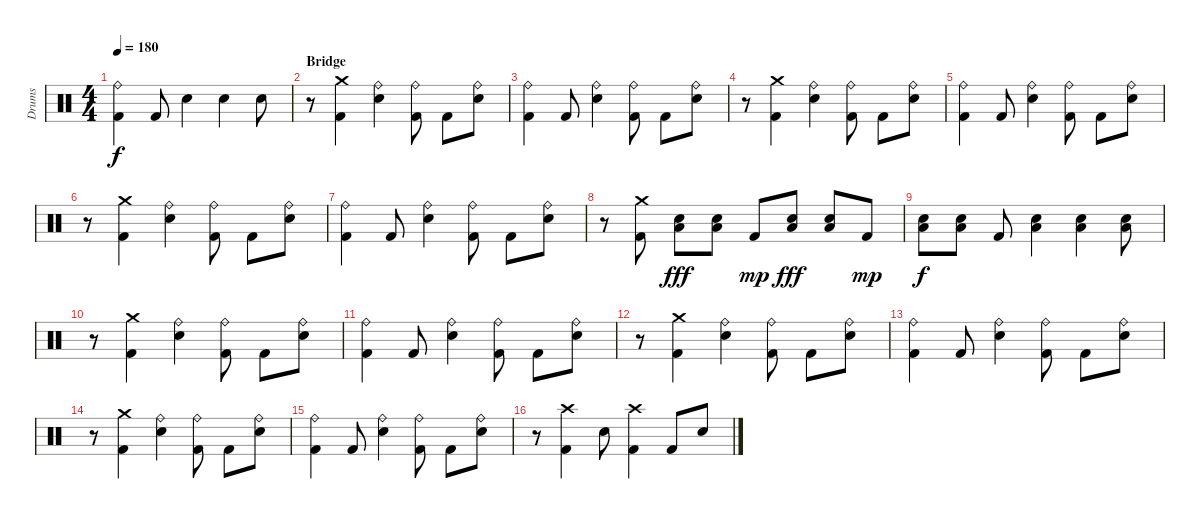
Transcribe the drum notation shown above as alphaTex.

\track ("Drums" "Drums") {instrument percussion}
\staff {score}
\articulation defaults
\ts (4 4)
\tempo 180
\clef neutral
\ks c
("Ride (bell)" "Kick (hit) 2").4{dy f} "Kick (hit) 2".8 "Snare (hit) 2".4 "Snare (hit) 2".4 "Snare (hit) 2".8 |
\section ("" "Bridge")
r.8 ("Crash medium (hit)" "Kick (hit) 2").4 ("Ride (bell)" "Snare (hit) 2").4 ("Ride (bell)" "Kick (hit) 2").8 "Kick (hit) 2".8 ("Ride (bell)" "Snare (hit) 2").8 |
("Ride (bell)" "Kick (hit) 2").4 "Kick (hit) 2".8 ("Ride (bell)" "Snare (hit) 2").4 ("Ride (bell)" "Kick (hit) 2").8 "Kick (hit) 2".8 ("Ride (bell)" "Snare (hit) 2").8 |
r.8 ("Crash medium (hit)" "Kick (hit) 2").4 ("Ride (bell)" "Snare (hit) 2").4 ("Ride (bell)" "Kick (hit) 2").8 "Kick (hit) 2".8 ("Ride (bell)" "Snare (hit) 2").8 |
("Ride (bell)" "Kick (hit) 2").4 "Kick (hit) 2".8 ("Ride (bell)" "Snare (hit) 2").4 ("Ride (bell)" "Kick (hit) 2").8 "Kick (hit) 2".8 ("Ride (bell)" "Snare (hit) 2").8 |
r.8 ("Crash medium (hit)" "Kick (hit) 2").4 ("Ride (bell)" "Snare (hit) 2").4 ("Ride (bell)" "Kick (hit) 2").8 "Kick (hit) 2".8 ("Ride (bell)" "Snare (hit) 2").8 |
("Ride (bell)" "Kick (hit) 2").4 "Kick (hit) 2".8 ("Ride (bell)" "Snare (hit) 2").4 ("Ride (bell)" "Kick (hit) 2").8 "Kick (hit) 2".8 ("Ride (bell)" "Snare (hit) 2").8 |
r.8 ("Crash medium (hit)" "Kick (hit) 2").8 ("Snare (hit) 2" "Low Floor Tom (hit)").8{dy fff} ("Snare (hit) 2" "Low Floor Tom (hit)").8 "Kick (hit) 2".8{dy mp} ("Snare (hit) 2" "Low Floor Tom (hit)").8{dy fff} ("Snare (hit) 2" "Low Floor Tom (hit)").8 "Kick (hit) 2".8{dy mp} |
("Snare (hit) 2" "Low Floor Tom (hit)").8{dy f} ("Snare (hit) 2" "Low Floor Tom (hit)").8 "Kick (hit) 2".8 ("Snare (hit) 2" "Low Floor Tom (hit)").4 ("Snare (hit) 2" "Low Floor Tom (hit)").4 ("Snare (hit) 2" "Low Floor Tom (hit)").8 |
r.8 ("Crash medium (hit)" "Kick (hit) 2").4 ("Ride (bell)" "Snare (hit) 2").4 ("Ride (bell)" "Kick (hit) 2").8 "Kick (hit) 2".8 ("Ride (bell)" "Snare (hit) 2").8 |
("Ride (bell)" "Kick (hit) 2").4 "Kick (hit) 2".8 ("Ride (bell)" "Snare (hit) 2").4 ("Ride (bell)" "Kick (hit) 2").8 "Kick (hit) 2".8 ("Ride (bell)" "Snare (hit) 2").8 |
r.8 ("Crash medium (hit)" "Kick (hit) 2").4 ("Ride (bell)" "Snare (hit) 2").4 ("Ride (bell)" "Kick (hit) 2").8 "Kick (hit) 2".8 ("Ride (bell)" "Snare (hit) 2").8 |
("Ride (bell)" "Kick (hit) 2").4 "Kick (hit) 2".8 ("Ride (bell)" "Snare (hit) 2").4 ("Ride (bell)" "Kick (hit) 2").8 "Kick (hit) 2".8 ("Ride (bell)" "Snare (hit) 2").8 |
r.8 ("Crash medium (hit)" "Kick (hit) 2").4 ("Ride (bell)" "Snare (hit) 2").4 ("Ride (bell)" "Kick (hit) 2").8 "Kick (hit) 2".8 ("Ride (bell)" "Snare (hit) 2").8 |
("Ride (bell)" "Kick (hit) 2").4 "Kick (hit) 2".8 ("Ride (bell)" "Snare (hit) 2").4 ("Ride (bell)" "Kick (hit) 2").8 "Kick (hit) 2".8 ("Ride (bell)" "Snare (hit) 2").8 |
r.8 ("Crash high (hit)" "Kick (hit) 2").4 "Snare (hit) 2".8 ("Crash high (hit)" "Kick (hit) 2").4 "Kick (hit) 2".8 "Snare (hit) 2".8
